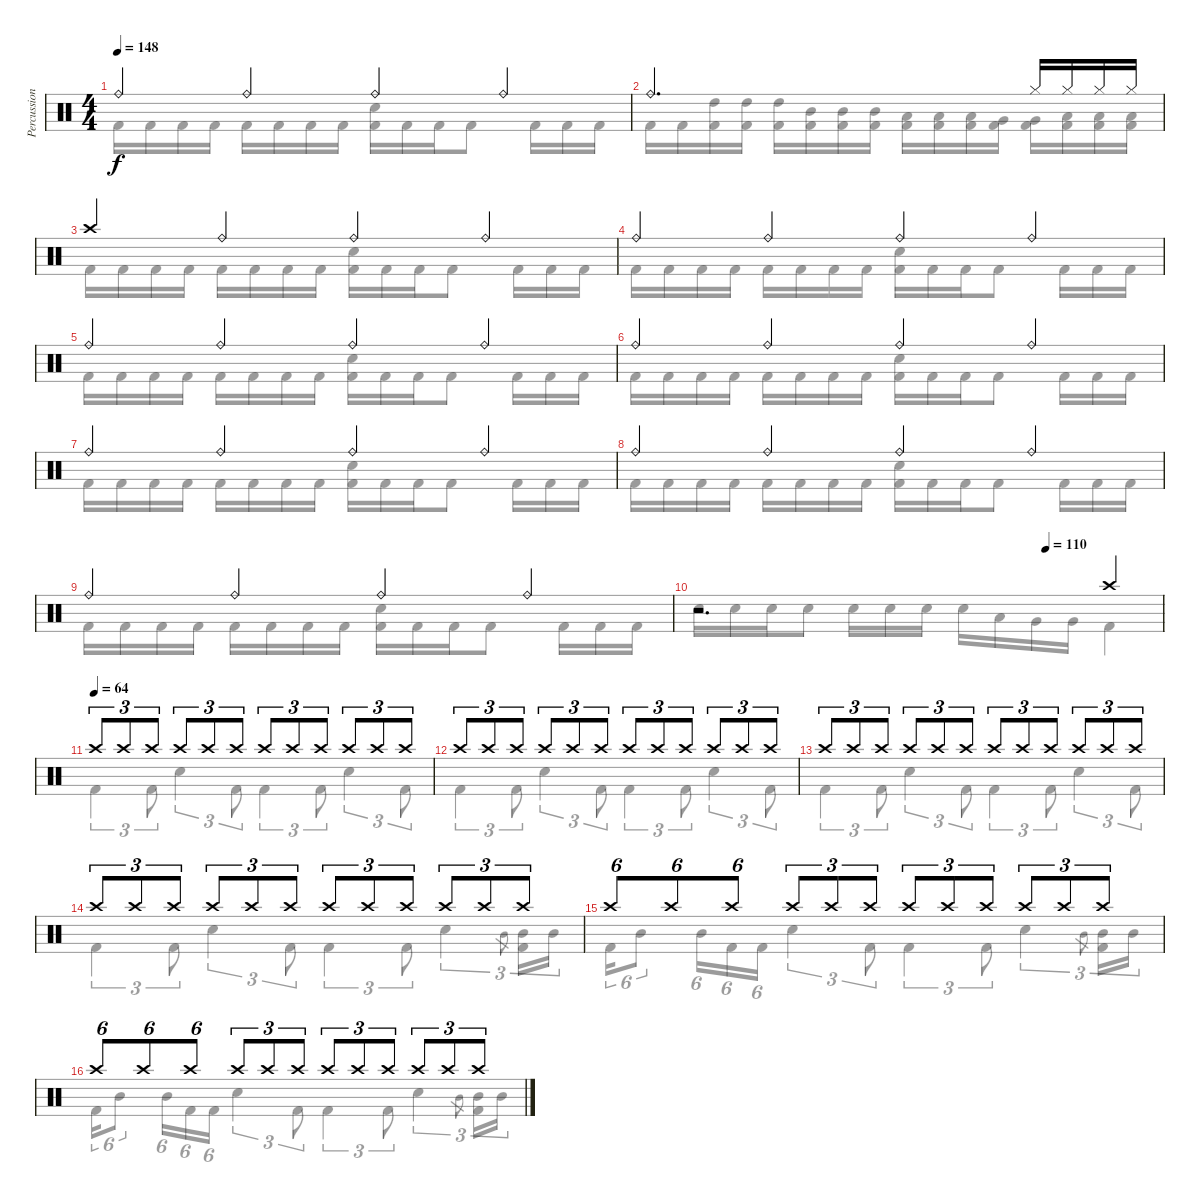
\track ("Percussion" "Percussion") {instrument percussion}
\staff {score}
\articulation defaults
\voice
\ts (4 4)
\tempo 148
\clef neutral
\ks c "Ride (bell)".4{dy f} "Ride (bell)".4 "Ride (bell)".4 "Ride (bell)".4
|
"Ride (bell)".2{d} "Hi-Hat (closed)".16 "Hi-Hat (closed)".16 "Hi-Hat (closed)".16 "Hi-Hat (closed)".16 |
"Crash high (hit)".4 "Ride (bell)".4 "Ride (bell)".4 "Ride (bell)".4 |
"Ride (bell)".4 "Ride (bell)".4 "Ride (bell)".4 "Ride (bell)".4 |
"Ride (bell)".4 "Ride (bell)".4 "Ride (bell)".4 "Ride (bell)".4 |
"Ride (bell)".4 "Ride (bell)".4 "Ride (bell)".4 "Ride (bell)".4 |
"Ride (bell)".4 "Ride (bell)".4 "Ride (bell)".4 "Ride (bell)".4 |
"Ride (bell)".4 "Ride (bell)".4 "Ride (bell)".4 "Ride (bell)".4 |
"Ride (bell)".4 "Ride (bell)".4 "Ride (bell)".4 "Ride (bell)".4 |
\tempo (110 0.75)
r.2{d} "Crash high (hit)".4 |
\tempo (64)
"Crash high (hit)".8{tu (3 2)} "Crash high (hit)".8{tu (3 2)} "Crash high (hit)".8{tu (3 2)} "Crash high (hit)".8{tu (3 2)} "Crash high (hit)".8{tu (3 2)} "Crash high (hit)".8{tu (3 2)} "Crash high (hit)".8{tu (3 2)} "Crash high (hit)".8{tu (3 2)} "Crash high (hit)".8{tu (3 2)} "Crash high (hit)".8{tu (3 2)} "Crash high (hit)".8{tu (3 2)} "Crash high (hit)".8{tu (3 2)} |
"Crash high (hit)".8{tu (3 2)} "Crash high (hit)".8{tu (3 2)} "Crash high (hit)".8{tu (3 2)} "Crash high (hit)".8{tu (3 2)} "Crash high (hit)".8{tu (3 2)} "Crash high (hit)".8{tu (3 2)} "Crash high (hit)".8{tu (3 2)} "Crash high (hit)".8{tu (3 2)} "Crash high (hit)".8{tu (3 2)} "Crash high (hit)".8{tu (3 2)} "Crash high (hit)".8{tu (3 2)} "Crash high (hit)".8{tu (3 2)} |
"Crash high (hit)".8{tu (3 2)} "Crash high (hit)".8{tu (3 2)} "Crash high (hit)".8{tu (3 2)} "Crash high (hit)".8{tu (3 2)} "Crash high (hit)".8{tu (3 2)} "Crash high (hit)".8{tu (3 2)} "Crash high (hit)".8{tu (3 2)} "Crash high (hit)".8{tu (3 2)} "Crash high (hit)".8{tu (3 2)} "Crash high (hit)".8{tu (3 2)} "Crash high (hit)".8{tu (3 2)} "Crash high (hit)".8{tu (3 2)} |
"Crash high (hit)".8{tu (3 2)} "Crash high (hit)".8{tu (3 2)} "Crash high (hit)".8{tu (3 2)} "Crash high (hit)".8{tu (3 2)} "Crash high (hit)".8{tu (3 2)} "Crash high (hit)".8{tu (3 2)} "Crash high (hit)".8{tu (3 2)} "Crash high (hit)".8{tu (3 2)} "Crash high (hit)".8{tu (3 2)} "Crash high (hit)".8{tu (3 2)} "Crash high (hit)".8{tu (3 2)} "Crash high (hit)".8{tu (3 2)} |
"Crash high (hit)".8{tu (6 4)} "Crash high (hit)".8{tu (6 4)} "Crash high (hit)".8{tu (6 4)} "Crash high (hit)".8{tu (3 2)} "Crash high (hit)".8{tu (3 2)} "Crash high (hit)".8{tu (3 2)} "Crash high (hit)".8{tu (3 2)} "Crash high (hit)".8{tu (3 2)} "Crash high (hit)".8{tu (3 2)} "Crash high (hit)".8{tu (3 2)} "Crash high (hit)".8{tu (3 2)} "Crash high (hit)".8{tu (3 2)} |
"Crash high (hit)".8{tu (6 4)} "Crash high (hit)".8{tu (6 4)} "Crash high (hit)".8{tu (6 4)} "Crash high (hit)".8{tu (3 2)} "Crash high (hit)".8{tu (3 2)} "Crash high (hit)".8{tu (3 2)} "Crash high (hit)".8{tu (3 2)} "Crash high (hit)".8{tu (3 2)} "Crash high (hit)".8{tu (3 2)} "Crash high (hit)".8{tu (3 2)} "Crash high (hit)".8{tu (3 2)} "Crash high (hit)".8{tu (3 2)}
\voice
\clef neutral
\ottava regular
\simile none
\ks c "Kick (hit) 2".16{dy f} "Kick (hit) 2".16 "Kick (hit) 2".16 "Kick (hit) 2".16 "Kick (hit) 2".16 "Kick (hit) 2".16 "Kick (hit) 2".16 "Kick (hit) 2".16
("Electric Snare (hit)" "Kick (hit) 2").16 "Kick (hit) 2".16 "Kick (hit) 2".16 "Kick (hit) 2".8 "Kick (hit) 2".16 "Kick (hit) 2".16 "Kick (hit) 2".16 |
"Kick (hit) 2".16 "Kick (hit) 2".16 ("High Tom (hit)" "Kick (hit) 2").16 ("High Tom (hit)" "Kick (hit) 2").16 ("High Tom (hit)" "Kick (hit) 2").16 ("Mid Tom (hit)" "Kick (hit) 2").16 ("Mid Tom (hit)" "Kick (hit) 2").16 ("Mid Tom (hit)" "Kick (hit) 2").16 ("Low Tom (hit)" "Kick (hit) 2").16 ("Low Tom (hit)" "Kick (hit) 2").16 ("Low Tom (hit)" "Kick (hit) 2").16 ("Very Low Tom (hit)" "Kick (hit) 2").16 ("Very Low Tom (hit)" "Kick (hit) 2").16 ("Low Floor Tom (hit)" "Kick (hit) 2").16 ("Low Floor Tom (hit)" "Kick (hit) 2").16 ("Low Floor Tom (hit)" "Kick (hit) 2").16 |
"Kick (hit) 2".16 "Kick (hit) 2".16 "Kick (hit) 2".16 "Kick (hit) 2".16 "Kick (hit) 2".16 "Kick (hit) 2".16 "Kick (hit) 2".16 "Kick (hit) 2".16 ("Electric Snare (hit)" "Kick (hit) 2").16 "Kick (hit) 2".16 "Kick (hit) 2".16 "Kick (hit) 2".8 "Kick (hit) 2".16 "Kick (hit) 2".16 "Kick (hit) 2".16 |
"Kick (hit) 2".16 "Kick (hit) 2".16 "Kick (hit) 2".16 "Kick (hit) 2".16 "Kick (hit) 2".16 "Kick (hit) 2".16 "Kick (hit) 2".16 "Kick (hit) 2".16 ("Electric Snare (hit)" "Kick (hit) 2").16 "Kick (hit) 2".16 "Kick (hit) 2".16 "Kick (hit) 2".8 "Kick (hit) 2".16 "Kick (hit) 2".16 "Kick (hit) 2".16 |
"Kick (hit) 2".16 "Kick (hit) 2".16 "Kick (hit) 2".16 "Kick (hit) 2".16 "Kick (hit) 2".16 "Kick (hit) 2".16 "Kick (hit) 2".16 "Kick (hit) 2".16 ("Electric Snare (hit)" "Kick (hit) 2").16 "Kick (hit) 2".16 "Kick (hit) 2".16 "Kick (hit) 2".8 "Kick (hit) 2".16 "Kick (hit) 2".16 "Kick (hit) 2".16 |
"Kick (hit) 2".16 "Kick (hit) 2".16 "Kick (hit) 2".16 "Kick (hit) 2".16 "Kick (hit) 2".16 "Kick (hit) 2".16 "Kick (hit) 2".16 "Kick (hit) 2".16 ("Electric Snare (hit)" "Kick (hit) 2").16 "Kick (hit) 2".16 "Kick (hit) 2".16 "Kick (hit) 2".8 "Kick (hit) 2".16 "Kick (hit) 2".16 "Kick (hit) 2".16 |
"Kick (hit) 2".16 "Kick (hit) 2".16 "Kick (hit) 2".16 "Kick (hit) 2".16 "Kick (hit) 2".16 "Kick (hit) 2".16 "Kick (hit) 2".16 "Kick (hit) 2".16 ("Electric Snare (hit)" "Kick (hit) 2").16 "Kick (hit) 2".16 "Kick (hit) 2".16 "Kick (hit) 2".8 "Kick (hit) 2".16 "Kick (hit) 2".16 "Kick (hit) 2".16 |
"Kick (hit) 2".16 "Kick (hit) 2".16 "Kick (hit) 2".16 "Kick (hit) 2".16 "Kick (hit) 2".16 "Kick (hit) 2".16 "Kick (hit) 2".16 "Kick (hit) 2".16 ("Electric Snare (hit)" "Kick (hit) 2").16 "Kick (hit) 2".16 "Kick (hit) 2".16 "Kick (hit) 2".8 "Kick (hit) 2".16 "Kick (hit) 2".16 "Kick (hit) 2".16 |
"Kick (hit) 2".16 "Kick (hit) 2".16 "Kick (hit) 2".16 "Kick (hit) 2".16 "Kick (hit) 2".16 "Kick (hit) 2".16 "Kick (hit) 2".16 "Kick (hit) 2".16 ("Electric Snare (hit)" "Kick (hit) 2").16 "Kick (hit) 2".16 "Kick (hit) 2".16 "Kick (hit) 2".8 "Kick (hit) 2".16 "Kick (hit) 2".16 "Kick (hit) 2".16 |
"Electric Snare (hit)".16 "Electric Snare (hit)".16 "Electric Snare (hit)".16 "Electric Snare (hit)".8 "Electric Snare (hit)".16 "Electric Snare (hit)".16 "Electric Snare (hit)".16 "Electric Snare (hit)".16 "Low Tom (hit)".16 "Very Low Tom (hit)".16 "Very Low Tom (hit)".16 "Kick (hit) 2".4 |
"Kick (hit) 2".4{tu (3 2)} "Kick (hit) 2".8{tu (3 2)} "Electric Snare (hit)".4{tu (3 2)} "Kick (hit) 2".8{tu (3 2)} "Kick (hit) 2".4{tu (3 2)} "Kick (hit) 2".8{tu (3 2)} "Electric Snare (hit)".4{tu (3 2)} "Kick (hit) 2".8{tu (3 2)} |
"Kick (hit) 2".4{tu (3 2)} "Kick (hit) 2".8{tu (3 2)} "Electric Snare (hit)".4{tu (3 2)} "Kick (hit) 2".8{tu (3 2)} "Kick (hit) 2".4{tu (3 2)} "Kick (hit) 2".8{tu (3 2)} "Electric Snare (hit)".4{tu (3 2)} "Kick (hit) 2".8{tu (3 2)} |
"Kick (hit) 2".4{tu (3 2)} "Kick (hit) 2".8{tu (3 2)} "Electric Snare (hit)".4{tu (3 2)} "Kick (hit) 2".8{tu (3 2)} "Kick (hit) 2".4{tu (3 2)} "Kick (hit) 2".8{tu (3 2)} "Electric Snare (hit)".4{tu (3 2)} "Kick (hit) 2".8{tu (3 2)} |
"Kick (hit) 2".4{tu (3 2)} "Kick (hit) 2".8{tu (3 2)} "Electric Snare (hit)".4{tu (3 2)} "Kick (hit) 2".8{tu (3 2)} "Kick (hit) 2".4{tu (3 2)} "Kick (hit) 2".8{tu (3 2)} "Electric Snare (hit)".4{tu (3 2)} "Mid Tom (hit)".8{gr} ("Mid Tom (hit)" "Kick (hit) 2").16{tu (3 2)} "Mid Tom (hit)".16{tu (3 2)} |
"Kick (hit) 2".16{tu (6 4)} "Mid Tom (hit)".8{tu (6 4)} "Mid Tom (hit)".16{tu (6 4)} "Kick (hit) 2".16{tu (6 4)} "Kick (hit) 2".16{tu (6 4)} "Electric Snare (hit)".4{tu (3 2)} "Kick (hit) 2".8{tu (3 2)} "Kick (hit) 2".4{tu (3 2)} "Kick (hit) 2".8{tu (3 2)} "Electric Snare (hit)".4{tu (3 2)} "Mid Tom (hit)".8{gr} ("Mid Tom (hit)" "Kick (hit) 2").16{tu (3 2)} "Mid Tom (hit)".16{tu (3 2)} |
"Kick (hit) 2".16{tu (6 4)} "Mid Tom (hit)".8{tu (6 4)} "Mid Tom (hit)".16{tu (6 4)} "Kick (hit) 2".16{tu (6 4)} "Kick (hit) 2".16{tu (6 4)} "Electric Snare (hit)".4{tu (3 2)} "Kick (hit) 2".8{tu (3 2)} "Kick (hit) 2".4{tu (3 2)} "Kick (hit) 2".8{tu (3 2)} "Electric Snare (hit)".4{tu (3 2)} "Mid Tom (hit)".8{gr} ("Mid Tom (hit)" "Kick (hit) 2").16{tu (3 2)} "Mid Tom (hit)".16{tu (3 2)}
